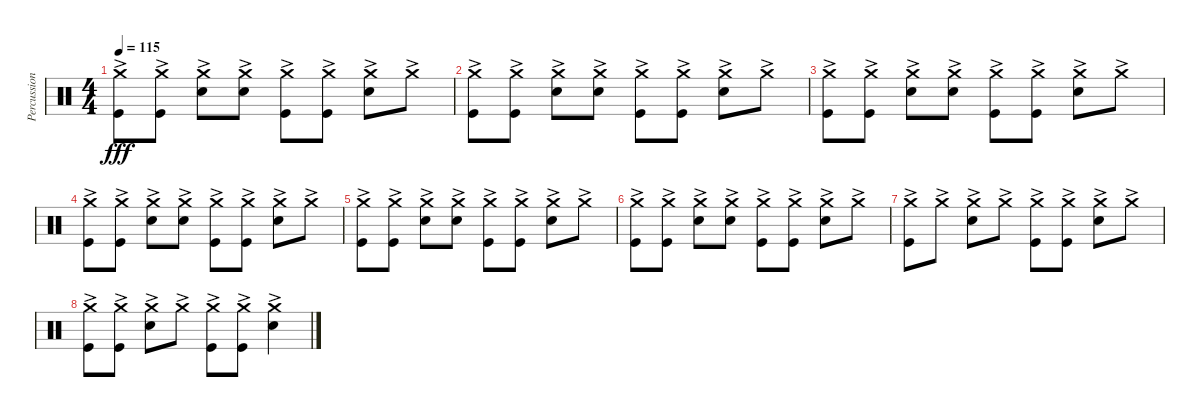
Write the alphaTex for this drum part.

\track ("Percussion" "Percussion") {instrument percussion}
\staff {score}
\articulation defaults
\ts (4 4)
\tempo 115
\clef neutral
\ks c
("Crash medium (hit)"{ac} "Kick (hit)").8{dy fff} ("Crash medium (hit)"{ac} "Kick (hit)").8 ("Crash medium (hit)"{ac} "Snare (hit) 2").8 ("Crash medium (hit)"{ac} "Snare (hit) 2").8 ("Crash medium (hit)"{ac} "Kick (hit)").8 ("Crash medium (hit)"{ac} "Kick (hit)").8 ("Crash medium (hit)"{ac} "Snare (hit) 2").8 "Crash medium (hit)"{ac}.8 |
("Crash medium (hit)"{ac} "Kick (hit)").8 ("Crash medium (hit)"{ac} "Kick (hit)").8 ("Crash medium (hit)"{ac} "Snare (hit) 2").8 ("Crash medium (hit)"{ac} "Snare (hit) 2").8 ("Crash medium (hit)"{ac} "Kick (hit)").8 ("Crash medium (hit)"{ac} "Kick (hit)").8 ("Crash medium (hit)"{ac} "Snare (hit) 2").8 "Crash medium (hit)"{ac}.8 |
("Crash medium (hit)"{ac} "Kick (hit)").8 ("Crash medium (hit)"{ac} "Kick (hit)").8 ("Crash medium (hit)"{ac} "Snare (hit) 2").8 ("Crash medium (hit)"{ac} "Snare (hit) 2").8 ("Crash medium (hit)"{ac} "Kick (hit)").8 ("Crash medium (hit)"{ac} "Kick (hit)").8 ("Crash medium (hit)"{ac} "Snare (hit) 2").8 "Crash medium (hit)"{ac}.8 |
("Crash medium (hit)"{ac} "Kick (hit)").8 ("Crash medium (hit)"{ac} "Kick (hit)").8 ("Crash medium (hit)"{ac} "Snare (hit) 2").8 ("Crash medium (hit)"{ac} "Snare (hit) 2").8 ("Crash medium (hit)"{ac} "Kick (hit)").8 ("Crash medium (hit)"{ac} "Kick (hit)").8 ("Crash medium (hit)"{ac} "Snare (hit) 2").8 "Crash medium (hit)"{ac}.8 |
("Crash medium (hit)"{ac} "Kick (hit)").8 ("Crash medium (hit)"{ac} "Kick (hit)").8 ("Crash medium (hit)"{ac} "Snare (hit) 2").8 ("Crash medium (hit)"{ac} "Snare (hit) 2").8 ("Crash medium (hit)"{ac} "Kick (hit)").8 ("Crash medium (hit)"{ac} "Kick (hit)").8 ("Crash medium (hit)"{ac} "Snare (hit) 2").8 "Crash medium (hit)"{ac}.8 |
("Crash medium (hit)"{ac} "Kick (hit)").8 ("Crash medium (hit)"{ac} "Kick (hit)").8 ("Crash medium (hit)"{ac} "Snare (hit) 2").8 ("Crash medium (hit)"{ac} "Snare (hit) 2").8 ("Crash medium (hit)"{ac} "Kick (hit)").8 ("Crash medium (hit)"{ac} "Kick (hit)").8 ("Crash medium (hit)"{ac} "Snare (hit) 2").8 "Crash medium (hit)"{ac}.8 |
("Crash medium (hit)"{ac} "Kick (hit)").8 "Crash medium (hit)"{ac}.8 ("Crash medium (hit)"{ac} "Snare (hit) 2").8 "Crash medium (hit)"{ac}.8 ("Crash medium (hit)"{ac} "Kick (hit)").8 ("Crash medium (hit)"{ac} "Kick (hit)").8 ("Crash medium (hit)"{ac} "Snare (hit) 2").8 "Crash medium (hit)"{ac}.8 |
("Crash medium (hit)"{ac} "Kick (hit)").8 ("Crash medium (hit)"{ac} "Kick (hit)").8 ("Crash medium (hit)"{ac} "Snare (hit) 2").8 "Crash medium (hit)"{ac}.8 ("Crash medium (hit)"{ac} "Kick (hit)").8 ("Crash medium (hit)"{ac} "Kick (hit)").8 ("Crash medium (hit)"{ac} "Snare (hit) 2").4
